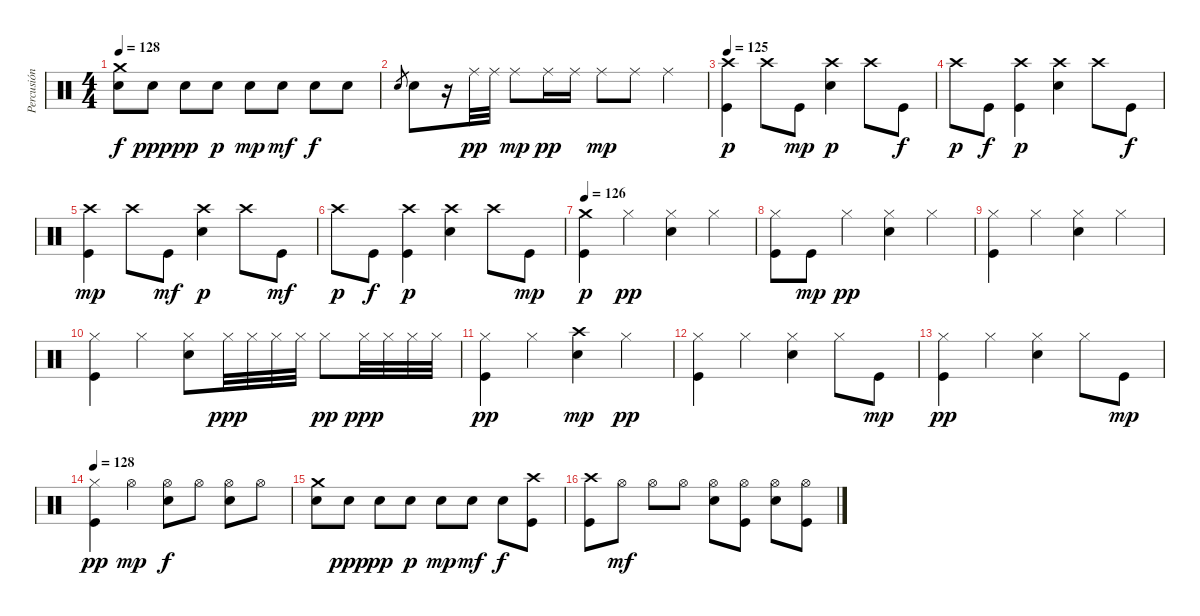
\track ("Percusión" "Percusión") {instrument percussion}
\staff {score}
\articulation defaults
\ts (4 4)
\tempo 128
\clef neutral
\ks c
("Snare (hit) 2" "Crash medium (hit)").8{dy f} "Snare (hit) 2".8{dy ppp} "Snare (hit) 2".8{dy pp} "Snare (hit) 2".8{dy p} "Snare (hit) 2".8{dy mp} "Snare (hit) 2".8{dy mf} "Snare (hit) 2".8{dy f} "Snare (hit) 2".8 |
"Snare (hit) 2".8{gr} "Snare (hit) 2".8 r.16 "Ride (middle)".32{dy pp} "Ride (middle)".32 "Ride (middle)".8{dy mp} "Ride (middle)".16{dy pp} "Ride (middle)".16 "Ride (middle)".8{dy mp} "Ride (middle)".8 "Ride (middle)".4 |
\tempo 125
("Kick (hit)" "Crash high (hit)").4{dy p} "Crash high (hit)".8 "Kick (hit)".8{dy mp} ("Snare (hit) 2" "Crash high (hit)").4{dy p} "Crash high (hit)".8 "Kick (hit)".8{dy f} |
"Crash high (hit)".8{dy p} "Kick (hit)".8{dy f} ("Kick (hit)" "Crash high (hit)").4{dy p} ("Snare (hit) 2" "Crash high (hit)").4 "Crash high (hit)".8 "Kick (hit)".8{dy f} |
("Kick (hit)" "Crash high (hit)").4{dy mp} "Crash high (hit)".8 "Kick (hit)".8{dy mf} ("Snare (hit) 2" "Crash high (hit)").4{dy p} "Crash high (hit)".8 "Kick (hit)".8{dy mf} |
"Crash high (hit)".8{dy p} "Kick (hit)".8{dy f} ("Kick (hit)" "Crash high (hit)").4{dy p} ("Snare (hit) 2" "Crash high (hit)").4 "Crash high (hit)".8 "Kick (hit)".8{dy mp} |
\tempo 126
("Kick (hit)" "Crash medium (hit)").4{dy p} "Hi-Hat (closed)".4{dy pp} ("Snare (hit) 2" "Hi-Hat (closed)").4 "Hi-Hat (closed)".4 |
("Kick (hit)" "Hi-Hat (closed)").8 "Kick (hit)".8{dy mp} "Hi-Hat (closed)".4{dy pp} ("Snare (hit) 2" "Hi-Hat (closed)").4 "Hi-Hat (closed)".4 |
("Kick (hit)" "Hi-Hat (closed)").4 "Hi-Hat (closed)".4 ("Snare (hit) 2" "Hi-Hat (closed)").4 "Hi-Hat (closed)".4 |
("Kick (hit)" "Hi-Hat (closed)").4 "Hi-Hat (closed)".4 ("Snare (hit) 2" "Hi-Hat (closed)").8 "Hi-Hat (closed)".32{dy ppp} "Hi-Hat (closed)".32 "Hi-Hat (closed)".32 "Hi-Hat (closed)".32 "Hi-Hat (closed)".8{dy pp} "Hi-Hat (closed)".32{dy ppp} "Hi-Hat (closed)".32 "Hi-Hat (closed)".32 "Hi-Hat (closed)".32 |
("Kick (hit)" "Hi-Hat (closed)").4{dy pp} "Hi-Hat (closed)".4 ("Snare (hit) 2" "Crash high (hit)").4{dy mp} "Hi-Hat (closed)".4{dy pp} |
("Kick (hit)" "Hi-Hat (closed)").4 "Hi-Hat (closed)".4 ("Snare (hit) 2" "Hi-Hat (closed)").4 "Hi-Hat (closed)".8 "Kick (hit)".8{dy mp} |
("Kick (hit)" "Hi-Hat (closed)").4{dy pp} "Hi-Hat (closed)".4 ("Snare (hit) 2" "Hi-Hat (closed)").4 "Hi-Hat (closed)".8 "Kick (hit)".8{dy mp} |
\tempo 128
("Kick (hit)" "Hi-Hat (closed)").4{dy pp} "Hi-Hat (open)".4{dy mp} ("Snare (hit) 2" "Hi-Hat (open)").8{dy f} "Hi-Hat (open)".8 ("Snare (hit) 2" "Hi-Hat (open)").8 "Hi-Hat (open)".8 |
("Snare (hit) 2" "Crash medium (hit)").8 "Snare (hit) 2".8{dy ppp} "Snare (hit) 2".8{dy pp} "Snare (hit) 2".8{dy p} "Snare (hit) 2".8{dy mp} "Snare (hit) 2".8{dy mf} "Snare (hit) 2".8{dy f} ("Kick (hit)" "Crash high (hit)").8 |
("Kick (hit)" "Crash high (hit)").8 "Hi-Hat (open)".8{dy mf} "Hi-Hat (open)".8 "Hi-Hat (open)".8 ("Snare (hit) 2" "Hi-Hat (open)").8 ("Kick (hit)" "Hi-Hat (open)").8 ("Snare (hit) 2" "Hi-Hat (open)").8 ("Kick (hit)" "Hi-Hat (open)").8
